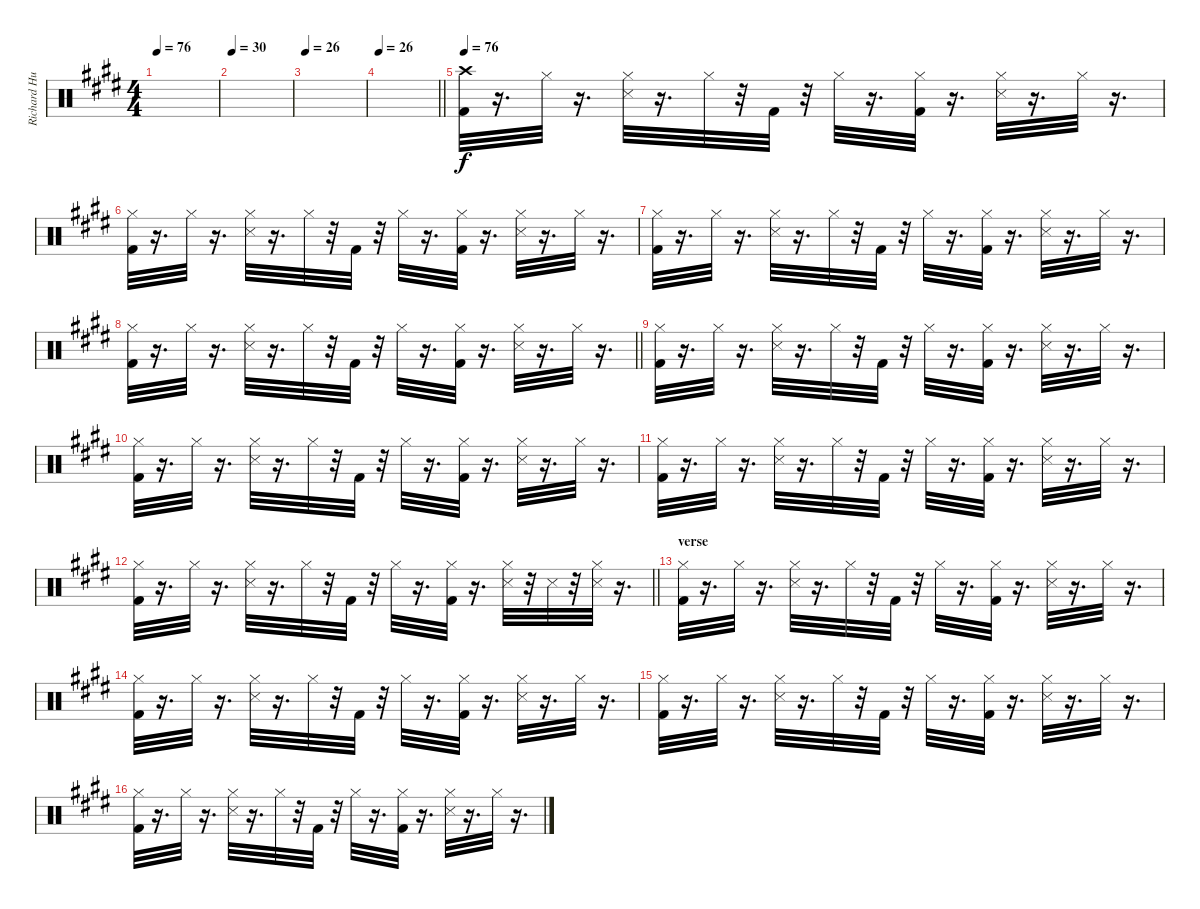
\track ("Richard Hughes" "Richard Hu") {instrument percussion}
\staff {score}
\articulation defaults
\ts (4 4)
\tempo 76
\tempo 26
\tempo 76
\clef neutral
\ks e
|
\tempo 30
|
\tempo 26
|
\tempo 26
\barLineRight lightlight
|
\tempo 76
("Kick (hit) 2" "Crash high (hit)").32 r.16{d} "Hi-Hat (closed)".32 r.16{d} ("Hi-Hat (closed)" "Snare (side stick) 3").32 r.16{d} "Hi-Hat (closed)".32 r.32 "Kick (hit) 2".32 r.32 "Hi-Hat (closed)".32 r.16{d} ("Kick (hit) 2" "Hi-Hat (closed)").32 r.16{d} ("Snare (side stick) 3" "Hi-Hat (closed)").32 r.16{d} "Hi-Hat (closed)".32 r.16{d} |
("Kick (hit) 2" "Hi-Hat (closed)").32 r.16{d} "Hi-Hat (closed)".32 r.16{d} ("Hi-Hat (closed)" "Snare (side stick) 3").32 r.16{d} "Hi-Hat (closed)".32 r.32 "Kick (hit) 2".32 r.32 "Hi-Hat (closed)".32 r.16{d} ("Kick (hit) 2" "Hi-Hat (closed)").32 r.16{d} ("Snare (side stick) 3" "Hi-Hat (closed)").32 r.16{d} "Hi-Hat (closed)".32 r.16{d} |
("Kick (hit) 2" "Hi-Hat (closed)").32 r.16{d} "Hi-Hat (closed)".32 r.16{d} ("Hi-Hat (closed)" "Snare (side stick) 3").32 r.16{d} "Hi-Hat (closed)".32 r.32 "Kick (hit) 2".32 r.32 "Hi-Hat (closed)".32 r.16{d} ("Kick (hit) 2" "Hi-Hat (closed)").32 r.16{d} ("Snare (side stick) 3" "Hi-Hat (closed)").32 r.16{d} "Hi-Hat (closed)".32 r.16{d} |
\barLineRight lightlight
("Kick (hit) 2" "Hi-Hat (closed)").32 r.16{d} "Hi-Hat (closed)".32 r.16{d} ("Snare (side stick) 3" "Hi-Hat (closed)").32 r.16{d} "Hi-Hat (closed)".32 r.32 "Kick (hit) 2".32 r.32 "Hi-Hat (closed)".32 r.16{d} ("Kick (hit) 2" "Hi-Hat (closed)").32 r.16{d} ("Snare (side stick) 3" "Hi-Hat (closed)").32 r.16{d} "Hi-Hat (closed)".32 r.16{d} |
("Kick (hit) 2" "Hi-Hat (closed)").32 r.16{d} "Hi-Hat (closed)".32 r.16{d} ("Snare (side stick) 3" "Hi-Hat (closed)").32 r.16{d} "Hi-Hat (closed)".32 r.32 "Kick (hit) 2".32 r.32 "Hi-Hat (closed)".32 r.16{d} ("Kick (hit) 2" "Hi-Hat (closed)").32 r.16{d} ("Snare (side stick) 3" "Hi-Hat (closed)").32 r.16{d} "Hi-Hat (closed)".32 r.16{d} |
("Kick (hit) 2" "Hi-Hat (closed)").32 r.16{d} "Hi-Hat (closed)".32 r.16{d} ("Snare (side stick) 3" "Hi-Hat (closed)").32 r.16{d} "Hi-Hat (closed)".32 r.32 "Kick (hit) 2".32 r.32 "Hi-Hat (closed)".32 r.16{d} ("Kick (hit) 2" "Hi-Hat (closed)").32 r.16{d} ("Hi-Hat (closed)" "Snare (side stick) 3").32 r.16{d} "Hi-Hat (closed)".32 r.16{d} |
("Kick (hit) 2" "Hi-Hat (closed)").32 r.16{d} "Hi-Hat (closed)".32 r.16{d} ("Snare (side stick) 3" "Hi-Hat (closed)").32 r.16{d} "Hi-Hat (closed)".32 r.32 "Kick (hit) 2".32 r.32 "Hi-Hat (closed)".32 r.16{d} ("Kick (hit) 2" "Hi-Hat (closed)").32 r.16{d} ("Hi-Hat (closed)" "Snare (side stick) 3").32 r.16{d} "Hi-Hat (closed)".32 r.16{d} |
\barLineRight lightlight
("Kick (hit) 2" "Hi-Hat (closed)").32 r.16{d} "Hi-Hat (closed)".32 r.16{d} ("Snare (side stick) 3" "Hi-Hat (closed)").32 r.16{d} "Hi-Hat (closed)".32 r.32 "Kick (hit) 2".32 r.32 "Hi-Hat (closed)".32 r.16{d} ("Kick (hit) 2" "Hi-Hat (closed)").32 r.16{d} ("Hi-Hat (closed)" "Snare (side stick) 3").32 r.32 "Snare (side stick) 3".32 r.32 ("Hi-Hat (closed)" "Snare (side stick) 3").32 r.16{d} |
\section ("" "verse")
("Kick (hit) 2" "Hi-Hat (closed)").32 r.16{d} "Hi-Hat (closed)".32 r.16{d} ("Snare (side stick) 3" "Hi-Hat (closed)").32 r.16{d} "Hi-Hat (closed)".32 r.32 "Kick (hit) 2".32 r.32 "Hi-Hat (closed)".32 r.16{d} ("Kick (hit) 2" "Hi-Hat (closed)").32 r.16{d} ("Snare (side stick) 3" "Hi-Hat (closed)").32 r.16{d} "Hi-Hat (closed)".32 r.16{d} |
("Kick (hit) 2" "Hi-Hat (closed)").32 r.16{d} "Hi-Hat (closed)".32 r.16{d} ("Snare (side stick) 3" "Hi-Hat (closed)").32 r.16{d} "Hi-Hat (closed)".32 r.32 "Kick (hit) 2".32 r.32 "Hi-Hat (closed)".32 r.16{d} ("Kick (hit) 2" "Hi-Hat (closed)").32 r.16{d} ("Hi-Hat (closed)" "Snare (side stick) 3").32 r.16{d} "Hi-Hat (closed)".32 r.16{d} |
("Kick (hit) 2" "Hi-Hat (closed)").32 r.16{d} "Hi-Hat (closed)".32 r.16{d} ("Snare (side stick) 3" "Hi-Hat (closed)").32 r.16{d} "Hi-Hat (closed)".32 r.32 "Kick (hit) 2".32 r.32 "Hi-Hat (closed)".32 r.16{d} ("Kick (hit) 2" "Hi-Hat (closed)").32 r.16{d} ("Hi-Hat (closed)" "Snare (side stick) 3").32 r.16{d} "Hi-Hat (closed)".32 r.16{d} |
("Kick (hit) 2" "Hi-Hat (closed)").32 r.16{d} "Hi-Hat (closed)".32 r.16{d} ("Snare (side stick) 3" "Hi-Hat (closed)").32 r.16{d} "Hi-Hat (closed)".32 r.32 "Kick (hit) 2".32 r.32 "Hi-Hat (closed)".32 r.16{d} ("Kick (hit) 2" "Hi-Hat (closed)").32 r.16{d} ("Hi-Hat (closed)" "Snare (side stick) 3").32 r.16{d} "Hi-Hat (closed)".32 r.16{d}
